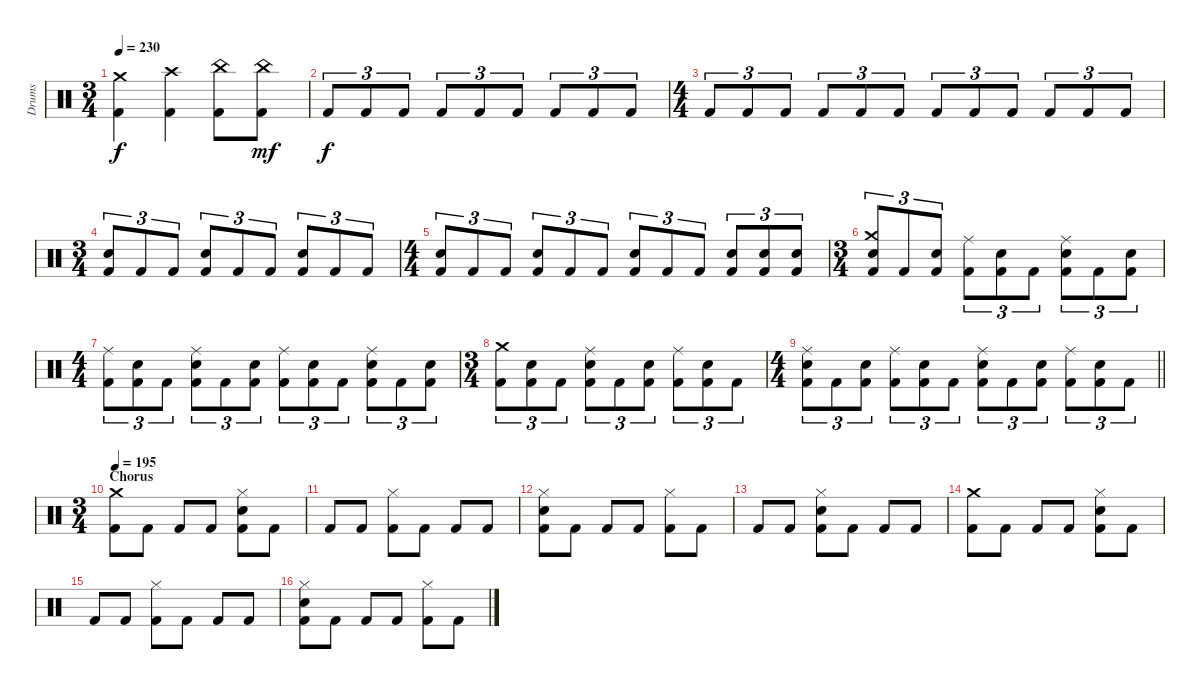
\track ("Drums" "Drums") {instrument percussion}
\staff {score}
\articulation defaults
\ts (3 4)
\tempo 230
\clef neutral
\ks c
("Kick (hit) 2" "Crash medium (hit)").4{dy f} ("Kick (hit) 2" "Crash high (hit)").4 ("Kick (hit) 2" "China (hit)").8 ("Kick (hit) 2" "China (hit)").8{dy mf} |
"Kick (hit) 2".8{tu (3 2) dy f} "Kick (hit) 2".8{tu (3 2)} "Kick (hit) 2".8{tu (3 2)} "Kick (hit) 2".8{tu (3 2)} "Kick (hit) 2".8{tu (3 2)} "Kick (hit) 2".8{tu (3 2)} "Kick (hit) 2".8{tu (3 2)} "Kick (hit) 2".8{tu (3 2)} "Kick (hit) 2".8{tu (3 2)} |
\ts (4 4)
"Kick (hit) 2".8{tu (3 2)} "Kick (hit) 2".8{tu (3 2)} "Kick (hit) 2".8{tu (3 2)} "Kick (hit) 2".8{tu (3 2)} "Kick (hit) 2".8{tu (3 2)} "Kick (hit) 2".8{tu (3 2)} "Kick (hit) 2".8{tu (3 2)} "Kick (hit) 2".8{tu (3 2)} "Kick (hit) 2".8{tu (3 2)} "Kick (hit) 2".8{tu (3 2)} "Kick (hit) 2".8{tu (3 2)} "Kick (hit) 2".8{tu (3 2)} |
\ts (3 4)
("Kick (hit) 2" "Snare (hit) 2").8{tu (3 2)} "Kick (hit) 2".8{tu (3 2)} "Kick (hit) 2".8{tu (3 2)} ("Kick (hit) 2" "Snare (hit) 2").8{tu (3 2)} "Kick (hit) 2".8{tu (3 2)} "Kick (hit) 2".8{tu (3 2)} ("Kick (hit) 2" "Snare (hit) 2").8{tu (3 2)} "Kick (hit) 2".8{tu (3 2)} "Kick (hit) 2".8{tu (3 2)} |
\ts (4 4)
("Kick (hit) 2" "Snare (hit) 2").8{tu (3 2)} "Kick (hit) 2".8{tu (3 2)} "Kick (hit) 2".8{tu (3 2)} ("Kick (hit) 2" "Snare (hit) 2").8{tu (3 2)} "Kick (hit) 2".8{tu (3 2)} "Kick (hit) 2".8{tu (3 2)} ("Kick (hit) 2" "Snare (hit) 2").8{tu (3 2)} "Kick (hit) 2".8{tu (3 2)} "Kick (hit) 2".8{tu (3 2)} ("Kick (hit) 2" "Snare (hit) 2").8{tu (3 2)} ("Kick (hit) 2" "Snare (hit) 2").8{tu (3 2)} ("Kick (hit) 2" "Snare (hit) 2").8{tu (3 2)} |
\ts (3 4)
("Kick (hit) 2" "Snare (hit) 2" "Crash medium (hit)").8{tu (3 2)} "Kick (hit) 2".8{tu (3 2)} ("Kick (hit) 2" "Snare (hit) 2").8{tu (3 2)} ("Kick (hit) 2" "Ride (middle)").8{tu (3 2)} ("Kick (hit) 2" "Snare (hit) 2").8{tu (3 2)} "Kick (hit) 2".8{tu (3 2)} ("Kick (hit) 2" "Snare (hit) 2" "Ride (middle)").8{tu (3 2)} "Kick (hit) 2".8{tu (3 2)} ("Kick (hit) 2" "Snare (hit) 2").8{tu (3 2)} |
\ts (4 4)
("Kick (hit) 2" "Ride (middle)").8{tu (3 2)} ("Kick (hit) 2" "Snare (hit) 2").8{tu (3 2)} "Kick (hit) 2".8{tu (3 2)} ("Kick (hit) 2" "Snare (hit) 2" "Ride (middle)").8{tu (3 2)} "Kick (hit) 2".8{tu (3 2)} ("Kick (hit) 2" "Snare (hit) 2").8{tu (3 2)} ("Kick (hit) 2" "Ride (middle)").8{tu (3 2)} ("Kick (hit) 2" "Snare (hit) 2").8{tu (3 2)} "Kick (hit) 2".8{tu (3 2)} ("Kick (hit) 2" "Snare (hit) 2" "Ride (middle)").8{tu (3 2)} "Kick (hit) 2".8{tu (3 2)} ("Kick (hit) 2" "Snare (hit) 2").8{tu (3 2)} |
\ts (3 4)
("Kick (hit) 2" "Crash medium (hit)").8{tu (3 2)} ("Kick (hit) 2" "Snare (hit) 2").8{tu (3 2)} "Kick (hit) 2".8{tu (3 2)} ("Kick (hit) 2" "Snare (hit) 2" "Ride (middle)").8{tu (3 2)} "Kick (hit) 2".8{tu (3 2)} ("Kick (hit) 2" "Snare (hit) 2").8{tu (3 2)} ("Kick (hit) 2" "Ride (middle)").8{tu (3 2)} ("Kick (hit) 2" "Snare (hit) 2").8{tu (3 2)} "Kick (hit) 2".8{tu (3 2)} |
\ts (4 4)
\barLineRight lightlight
("Kick (hit) 2" "Snare (hit) 2" "Ride (middle)").8{tu (3 2)} "Kick (hit) 2".8{tu (3 2)} ("Kick (hit) 2" "Snare (hit) 2").8{tu (3 2)} ("Kick (hit) 2" "Ride (middle)").8{tu (3 2)} ("Kick (hit) 2" "Snare (hit) 2").8{tu (3 2)} "Kick (hit) 2".8{tu (3 2)} ("Kick (hit) 2" "Snare (hit) 2" "Ride (middle)").8{tu (3 2)} "Kick (hit) 2".8{tu (3 2)} ("Kick (hit) 2" "Snare (hit) 2").8{tu (3 2)} ("Kick (hit) 2" "Ride (middle)").8{tu (3 2)} ("Kick (hit) 2" "Snare (hit) 2").8{tu (3 2)} "Kick (hit) 2".8{tu (3 2)} |
\ts (3 4)
\section ("" "Chorus")
\tempo 195
("Kick (hit) 2" "Crash medium (hit)").8 "Kick (hit) 2".8 "Kick (hit) 2".8 "Kick (hit) 2".8 ("Kick (hit) 2" "Snare (hit) 2" "Hi-Hat (closed)").8 "Kick (hit) 2".8 |
"Kick (hit) 2".8 "Kick (hit) 2".8 ("Kick (hit) 2" "Hi-Hat (closed)").8 "Kick (hit) 2".8 "Kick (hit) 2".8 "Kick (hit) 2".8 |
("Kick (hit) 2" "Snare (hit) 2" "Hi-Hat (closed)").8 "Kick (hit) 2".8 "Kick (hit) 2".8 "Kick (hit) 2".8 ("Kick (hit) 2" "Hi-Hat (closed)").8 "Kick (hit) 2".8 |
"Kick (hit) 2".8 "Kick (hit) 2".8 ("Kick (hit) 2" "Snare (hit) 2" "Hi-Hat (closed)").8 "Kick (hit) 2".8 "Kick (hit) 2".8 "Kick (hit) 2".8 |
("Kick (hit) 2" "Crash medium (hit)").8 "Kick (hit) 2".8 "Kick (hit) 2".8 "Kick (hit) 2".8 ("Kick (hit) 2" "Snare (hit) 2" "Hi-Hat (closed)").8 "Kick (hit) 2".8 |
"Kick (hit) 2".8 "Kick (hit) 2".8 ("Kick (hit) 2" "Hi-Hat (closed)").8 "Kick (hit) 2".8 "Kick (hit) 2".8 "Kick (hit) 2".8 |
("Kick (hit) 2" "Snare (hit) 2" "Hi-Hat (closed)").8 "Kick (hit) 2".8 "Kick (hit) 2".8 "Kick (hit) 2".8 ("Kick (hit) 2" "Hi-Hat (closed)").8 "Kick (hit) 2".8
